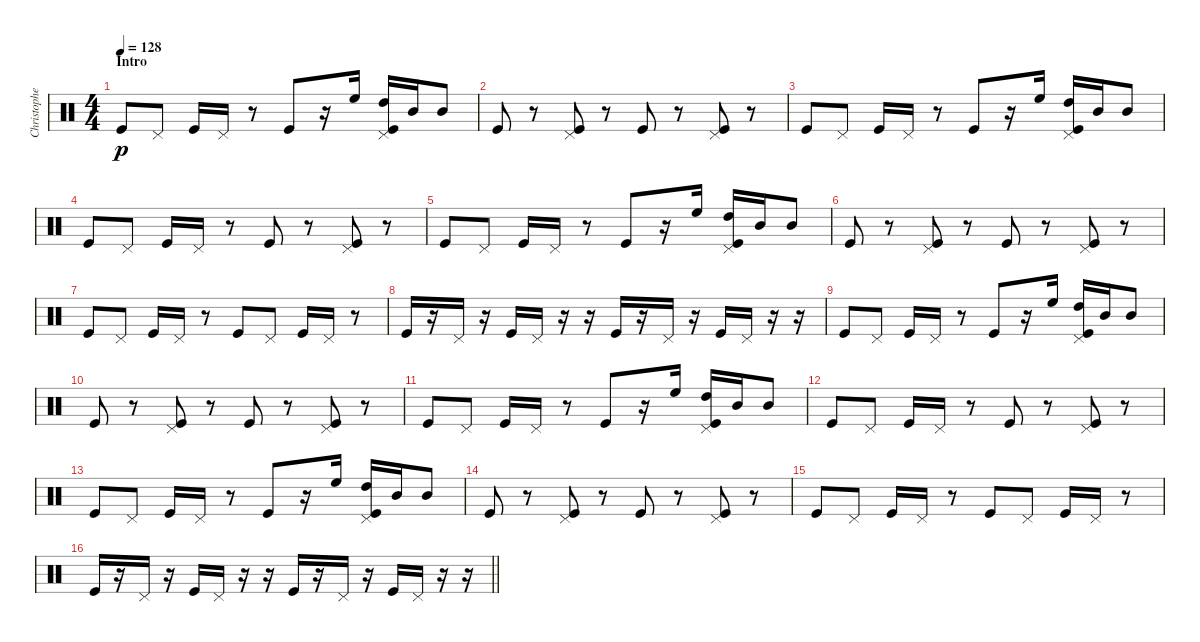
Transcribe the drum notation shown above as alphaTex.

\track ("Christopher - Drum Effects" "Christophe") {instrument percussion}
\staff {score}
\articulation defaults
\ts (4 4)
\section ("" "Intro")
\tempo 128
\clef neutral
\ks c "Kick (hit)".8{dy p} "Pedal Hi-Hat (hit)".8 "Kick (hit)".16 "Pedal Hi-Hat (hit)".16
r.8 "Kick (hit)".8 r.16 "High Floor Tom (hit)".16 ("Pedal Hi-Hat (hit)" "High Tom (hit)" "Kick (hit)").16 "Mid Tom (hit)".16 "Mid Tom (hit)".8 |
"Kick (hit)".8 r.8 ("Pedal Hi-Hat (hit)" "Kick (hit)").8 r.8 "Kick (hit)".8 r.8 ("Pedal Hi-Hat (hit)" "Kick (hit)").8 r.8 |
"Kick (hit)".8 "Pedal Hi-Hat (hit)".8 "Kick (hit)".16 "Pedal Hi-Hat (hit)".16 r.8 "Kick (hit)".8 r.16 "High Floor Tom (hit)".16 ("Pedal Hi-Hat (hit)" "High Tom (hit)" "Kick (hit)").16 "Mid Tom (hit)".16 "Mid Tom (hit)".8 |
"Kick (hit)".8 "Pedal Hi-Hat (hit)".8 "Kick (hit)".16 "Pedal Hi-Hat (hit)".16 r.8 "Kick (hit)".8 r.8 ("Pedal Hi-Hat (hit)" "Kick (hit)").8 r.8 |
"Kick (hit)".8 "Pedal Hi-Hat (hit)".8 "Kick (hit)".16 "Pedal Hi-Hat (hit)".16 r.8 "Kick (hit)".8 r.16 "High Floor Tom (hit)".16 ("Pedal Hi-Hat (hit)" "High Tom (hit)" "Kick (hit)").16 "Mid Tom (hit)".16 "Mid Tom (hit)".8 |
"Kick (hit)".8 r.8 ("Pedal Hi-Hat (hit)" "Kick (hit)").8 r.8 "Kick (hit)".8 r.8 ("Pedal Hi-Hat (hit)" "Kick (hit)").8 r.8 |
"Kick (hit)".8 "Pedal Hi-Hat (hit)".8 "Kick (hit)".16 "Pedal Hi-Hat (hit)".16 r.8 "Kick (hit)".8 "Pedal Hi-Hat (hit)".8 "Kick (hit)".16 "Pedal Hi-Hat (hit)".16 r.8 |
"Kick (hit)".16 r.16 "Pedal Hi-Hat (hit)".16 r.16 "Kick (hit)".16 "Pedal Hi-Hat (hit)".16 r.16 r.16 "Kick (hit)".16 r.16 "Pedal Hi-Hat (hit)".16 r.16 "Kick (hit)".16 "Pedal Hi-Hat (hit)".16 r.16 r.16 |
"Kick (hit)".8 "Pedal Hi-Hat (hit)".8 "Kick (hit)".16 "Pedal Hi-Hat (hit)".16 r.8 "Kick (hit)".8 r.16 "High Floor Tom (hit)".16 ("Pedal Hi-Hat (hit)" "High Tom (hit)" "Kick (hit)").16 "Mid Tom (hit)".16 "Mid Tom (hit)".8 |
"Kick (hit)".8 r.8 ("Pedal Hi-Hat (hit)" "Kick (hit)").8 r.8 "Kick (hit)".8 r.8 ("Pedal Hi-Hat (hit)" "Kick (hit)").8 r.8 |
"Kick (hit)".8 "Pedal Hi-Hat (hit)".8 "Kick (hit)".16 "Pedal Hi-Hat (hit)".16 r.8 "Kick (hit)".8 r.16 "High Floor Tom (hit)".16 ("Pedal Hi-Hat (hit)" "High Tom (hit)" "Kick (hit)").16 "Mid Tom (hit)".16 "Mid Tom (hit)".8 |
"Kick (hit)".8 "Pedal Hi-Hat (hit)".8 "Kick (hit)".16 "Pedal Hi-Hat (hit)".16 r.8 "Kick (hit)".8 r.8 ("Pedal Hi-Hat (hit)" "Kick (hit)").8 r.8 |
"Kick (hit)".8 "Pedal Hi-Hat (hit)".8 "Kick (hit)".16 "Pedal Hi-Hat (hit)".16 r.8 "Kick (hit)".8 r.16 "High Floor Tom (hit)".16 ("Pedal Hi-Hat (hit)" "High Tom (hit)" "Kick (hit)").16 "Mid Tom (hit)".16 "Mid Tom (hit)".8 |
"Kick (hit)".8 r.8 ("Pedal Hi-Hat (hit)" "Kick (hit)").8 r.8 "Kick (hit)".8 r.8 ("Pedal Hi-Hat (hit)" "Kick (hit)").8 r.8 |
"Kick (hit)".8 "Pedal Hi-Hat (hit)".8 "Kick (hit)".16 "Pedal Hi-Hat (hit)".16 r.8 "Kick (hit)".8 "Pedal Hi-Hat (hit)".8 "Kick (hit)".16 "Pedal Hi-Hat (hit)".16 r.8 |
\barLineRight lightlight "Kick (hit)".16
r.16 "Pedal Hi-Hat (hit)".16 r.16 "Kick (hit)".16 "Pedal Hi-Hat (hit)".16 r.16 r.16 "Kick (hit)".16 r.16 "Pedal Hi-Hat (hit)".16 r.16 "Kick (hit)".16 "Pedal Hi-Hat (hit)".16 r.16 r.16
